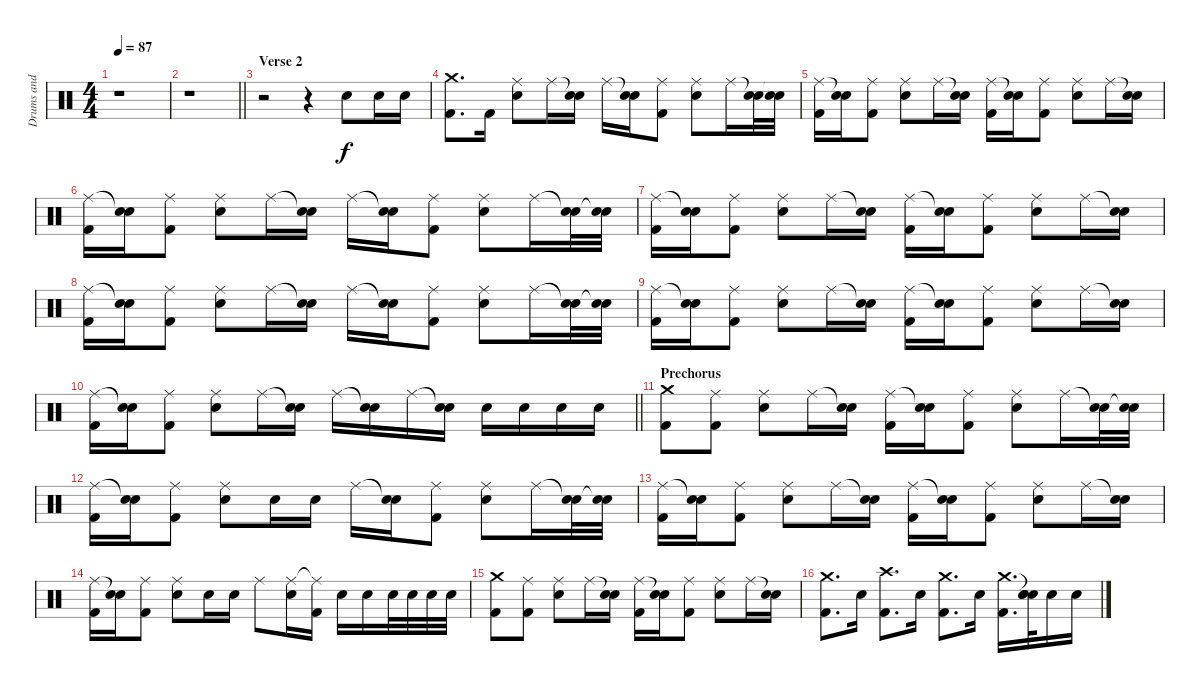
\track ("Drums and Percussion" "Drums and ") {instrument percussion}
\staff {score}
\articulation defaults
\ts (4 4)
\tempo 87
\clef neutral
\ks c
r.1{dy f} |
\barLineRight lightlight
r.1 |
\section ("" "Verse 2")
r.2 r.4 "Snare (hit) 2".8 "Snare (hit) 2".16 "Snare (hit) 2".16 |
("Crash medium (hit)" "Kick (hit) 2").8{d} "Kick (hit) 2".16 ("Ride (middle)" "Snare (hit) 2").8 "Ride (middle)".16 ("Snare (hit)"{t} "Snare (hit) 2").16 "Ride (middle)".16 ("Snare (hit)"{t} "Snare (hit) 2").16 ("Ride (middle)" "Kick (hit) 2").8 ("Ride (middle)" "Snare (hit) 2").8 "Ride (middle)".16 ("Snare (hit)"{t} "Snare (hit) 2").32 ("Snare (hit)"{t} "Snare (hit) 2").32 |
("Ride (middle)" "Kick (hit) 2").16 ("Snare (hit)"{t} "Snare (hit) 2").16 ("Ride (middle)" "Kick (hit) 2").8 ("Ride (middle)" "Snare (hit) 2").8 "Ride (middle)".16 ("Snare (hit)"{t} "Snare (hit) 2").16 ("Ride (middle)" "Kick (hit) 2").16 ("Snare (hit)"{t} "Snare (hit) 2").16 ("Ride (middle)" "Kick (hit) 2").8 ("Ride (middle)" "Snare (hit) 2").8 "Ride (middle)".16 ("Snare (hit)"{t} "Snare (hit) 2").16 |
("Ride (middle)" "Kick (hit) 2").16 ("Snare (hit)"{t} "Snare (hit) 2").16 ("Ride (middle)" "Kick (hit) 2").8 ("Ride (middle)" "Snare (hit) 2").8 "Ride (middle)".16 ("Snare (hit)"{t} "Snare (hit) 2").16 "Ride (middle)".16 ("Snare (hit)"{t} "Snare (hit) 2").16 ("Ride (middle)" "Kick (hit) 2").8 ("Ride (middle)" "Snare (hit) 2").8 "Ride (middle)".16 ("Snare (hit)"{t} "Snare (hit) 2").32 ("Snare (hit)"{t} "Snare (hit) 2").32 |
("Ride (middle)" "Kick (hit) 2").16 ("Snare (hit)"{t} "Snare (hit) 2").16 ("Ride (middle)" "Kick (hit) 2").8 ("Ride (middle)" "Snare (hit) 2").8 "Ride (middle)".16 ("Snare (hit)"{t} "Snare (hit) 2").16 ("Ride (middle)" "Kick (hit) 2").16 ("Snare (hit)"{t} "Snare (hit) 2").16 ("Ride (middle)" "Kick (hit) 2").8 ("Ride (middle)" "Snare (hit) 2").8 "Ride (middle)".16 ("Snare (hit)"{t} "Snare (hit) 2").16 |
("Ride (middle)" "Kick (hit) 2").16 ("Snare (hit)"{t} "Snare (hit) 2").16 ("Ride (middle)" "Kick (hit) 2").8 ("Ride (middle)" "Snare (hit) 2").8 "Ride (middle)".16 ("Snare (hit)"{t} "Snare (hit) 2").16 "Ride (middle)".16 ("Snare (hit)"{t} "Snare (hit) 2").16 ("Ride (middle)" "Kick (hit) 2").8 ("Ride (middle)" "Snare (hit) 2").8 "Ride (middle)".16 ("Snare (hit)"{t} "Snare (hit) 2").32 ("Snare (hit)"{t} "Snare (hit) 2").32 |
("Ride (middle)" "Kick (hit) 2").16 ("Snare (hit)"{t} "Snare (hit) 2").16 ("Ride (middle)" "Kick (hit) 2").8 ("Ride (middle)" "Snare (hit) 2").8 "Ride (middle)".16 ("Snare (hit)"{t} "Snare (hit) 2").16 ("Ride (middle)" "Kick (hit) 2").16 ("Snare (hit)"{t} "Snare (hit) 2").16 ("Ride (middle)" "Kick (hit) 2").8 ("Ride (middle)" "Snare (hit) 2").8 "Ride (middle)".16 ("Snare (hit)"{t} "Snare (hit) 2").16 |
\barLineRight lightlight
("Ride (middle)" "Kick (hit) 2").16 ("Snare (hit)"{t} "Snare (hit) 2").16 ("Ride (middle)" "Kick (hit) 2").8 ("Ride (middle)" "Snare (hit) 2").8 "Ride (middle)".16 ("Snare (hit)"{t} "Snare (hit) 2").16 "Ride (middle)".16 ("Snare (hit)"{t} "Snare (hit) 2").16 "Ride (middle)".16 ("Snare (hit)"{t} "Snare (hit) 2").16 "Snare (hit) 2".16 "Snare (hit) 2".16 "Snare (hit) 2".16 "Snare (hit) 2".16 |
\section ("" "Prechorus")
("Crash medium (hit)" "Kick (hit) 2").8 ("Ride (middle)" "Kick (hit) 2").8 ("Ride (middle)" "Snare (hit) 2").8 "Ride (middle)".16 ("Snare (hit)"{t} "Snare (hit) 2").16 ("Ride (middle)" "Kick (hit) 2").16 ("Snare (hit)"{t} "Snare (hit) 2").16 ("Ride (middle)" "Kick (hit) 2").8 ("Ride (middle)" "Snare (hit) 2").8 "Ride (middle)".16 ("Snare (hit)"{t} "Snare (hit) 2").32 ("Snare (hit)"{t} "Snare (hit) 2").32 |
("Ride (middle)" "Kick (hit) 2").16 ("Snare (hit)"{t} "Snare (hit) 2").16 ("Ride (middle)" "Kick (hit) 2").8 ("Ride (middle)" "Snare (hit) 2").8 "Snare (hit) 2".16 "Snare (hit) 2".16 "Ride (middle)".16 ("Snare (hit)"{t} "Snare (hit) 2").16 ("Ride (middle)" "Kick (hit) 2").8 ("Ride (middle)" "Snare (hit) 2").8 "Ride (middle)".16 ("Snare (hit)"{t} "Snare (hit) 2").32 ("Snare (hit)"{t} "Snare (hit) 2").32 |
("Ride (middle)" "Kick (hit) 2").16 ("Snare (hit)"{t} "Snare (hit) 2").16 ("Ride (middle)" "Kick (hit) 2").8 ("Ride (middle)" "Snare (hit) 2").8 "Ride (middle)".16 ("Snare (hit)"{t} "Snare (hit) 2").16 ("Ride (middle)" "Kick (hit) 2").16 ("Snare (hit)"{t} "Snare (hit) 2").16 ("Ride (middle)" "Kick (hit) 2").8 ("Ride (middle)" "Snare (hit) 2").8 "Ride (middle)".16 ("Snare (hit)"{t} "Snare (hit) 2").16 |
("Ride (middle)" "Kick (hit) 2").16 ("Snare (hit)"{t} "Snare (hit) 2").16 ("Ride (middle)" "Kick (hit) 2").8 ("Ride (middle)" "Snare (hit) 2").8 "Snare (hit) 2".16 "Snare (hit) 2".16 "Ride (middle)".8 ("Ride (middle)" "Snare (hit) 2").16 ("Ride (middle)"{t} "Kick (hit) 2").16 "Snare (hit) 2".16 "Snare (hit) 2".16 "Snare (hit) 2".32 "Snare (hit) 2".32 "Snare (hit) 2".32 "Snare (hit) 2".32 |
("Crash medium (hit)" "Kick (hit) 2").8 ("Ride (middle)" "Kick (hit) 2").8 ("Ride (middle)" "Snare (hit) 2").8 "Ride (middle)".16 ("Snare (hit)"{t} "Snare (hit) 2").16 ("Ride (middle)" "Kick (hit) 2").16 ("Snare (hit)"{t} "Snare (hit) 2").16 ("Ride (middle)" "Kick (hit) 2").8 ("Ride (middle)" "Snare (hit) 2").8 "Ride (middle)".16 ("Snare (hit)"{t} "Snare (hit) 2").16 |
("Crash medium (hit)" "Kick (hit) 2").8{d} "Snare (hit) 2".16 ("Crash high (hit)" "Kick (hit) 2").8{d} "Snare (hit) 2".16 ("Crash medium (hit)" "Kick (hit) 2").8{d} "Snare (hit) 2".16 ("Crash medium (hit)" "Kick (hit) 2").16{d} ("Snare (hit)"{t} "Snare (hit) 2" "Snare (hit)").32 "Snare (hit) 2".16 "Snare (hit) 2".16
